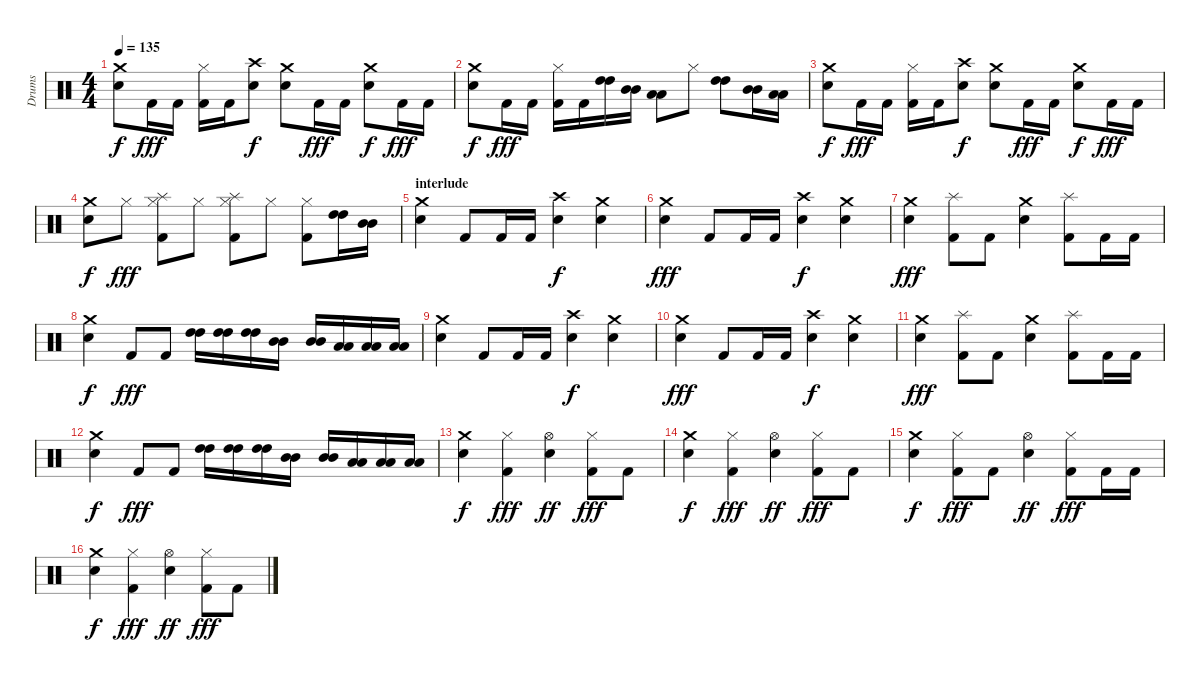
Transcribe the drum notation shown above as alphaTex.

\track ("Drums" "Drums") {instrument percussion}
\staff {score}
\articulation defaults
\ts (4 4)
\tempo 135
\clef neutral
\ks c
("Crash medium (hit)" "Electric Snare (hit)").8{dy f} "Kick (hit) 2".16{dy fff} "Kick (hit) 2".16 ("Hi-Hat (closed)" "Kick (hit) 2").16 "Kick (hit) 2".16 ("Crash high (hit)" "Electric Snare (hit)").8{dy f} ("Crash medium (hit)" "Electric Snare (hit)").8 "Kick (hit) 2".16{dy fff} "Kick (hit) 2".16 ("Crash medium (hit)" "Electric Snare (hit)").8{dy f} "Kick (hit) 2".16{dy fff} "Kick (hit) 2".16 |
("Crash medium (hit)" "Electric Snare (hit)").8{dy f} "Kick (hit) 2".16{dy fff} "Kick (hit) 2".16 ("Hi-Hat (closed)" "Kick (hit) 2").16 "Kick (hit) 2".16 ("High Tom (hit)" "High Tom (hit)").16 ("Mid Tom (hit)" "Mid Tom (hit)").16 ("Low Tom (hit)" "Low Tom (hit)").8 "Hi-Hat (closed)".8 ("High Tom (hit)" "High Tom (hit)").8 ("Mid Tom (hit)" "Mid Tom (hit)").16 ("Low Tom (hit)" "Low Tom (hit)").16 |
("Crash medium (hit)" "Electric Snare (hit)").8{dy f} "Kick (hit) 2".16{dy fff} "Kick (hit) 2".16 ("Hi-Hat (closed)" "Kick (hit) 2").16 "Kick (hit) 2".16 ("Crash high (hit)" "Electric Snare (hit)").8{dy f} ("Crash medium (hit)" "Electric Snare (hit)").8 "Kick (hit) 2".16{dy fff} "Kick (hit) 2".16 ("Crash medium (hit)" "Electric Snare (hit)").8{dy f} "Kick (hit) 2".16{dy fff} "Kick (hit) 2".16 |
("Crash medium (hit)" "Electric Snare (hit)").8{dy f} "Hi-Hat (closed)".8{dy fff} ("Splash (hit)" "Kick (hit) 2" "Hi-Hat (closed)").8 "Hi-Hat (closed)".8 ("Splash (hit)" "Kick (hit) 2" "Hi-Hat (closed)").8 "Hi-Hat (closed)".8 ("Kick (hit) 2" "Hi-Hat (closed)").8 ("High Tom (hit)" "High Tom (hit)").16 ("Mid Tom (hit)" "Mid Tom (hit)").16 |
\section ("" "interlude")
("Crash medium (hit)" "Electric Snare (hit)").4 "Kick (hit) 2".8 "Kick (hit) 2".16 "Kick (hit) 2".16 ("Crash high (hit)" "Electric Snare (hit)").4{dy f} ("Crash medium (hit)" "Electric Snare (hit)").4 |
("Crash medium (hit)" "Electric Snare (hit)").4{dy fff} "Kick (hit) 2".8 "Kick (hit) 2".16 "Kick (hit) 2".16 ("Crash high (hit)" "Electric Snare (hit)").4{dy f} ("Crash medium (hit)" "Electric Snare (hit)").4 |
("Crash medium (hit)" "Electric Snare (hit)").4{dy fff} ("Splash (hit)" "Kick (hit) 2").8 "Kick (hit) 2".8 ("Crash medium (hit)" "Electric Snare (hit)").4 ("Splash (hit)" "Kick (hit) 2").8 "Kick (hit) 2".16 "Kick (hit) 2".16 |
("Electric Snare (hit)" "Crash medium (hit)").4{dy f} "Kick (hit) 2".8{dy fff} "Kick (hit) 2".8 ("High Tom (hit)" "High Tom (hit)").16 ("High Tom (hit)" "High Tom (hit)").16 ("High Tom (hit)" "High Tom (hit)").16 ("Mid Tom (hit)" "Mid Tom (hit)").16 ("Mid Tom (hit)" "Mid Tom (hit)").16 ("Low Tom (hit)" "Low Tom (hit)").16 ("Low Tom (hit)" "Low Tom (hit)").16 ("Low Tom (hit)" "Low Tom (hit)").16 |
("Crash medium (hit)" "Electric Snare (hit)").4 "Kick (hit) 2".8 "Kick (hit) 2".16 "Kick (hit) 2".16 ("Crash high (hit)" "Electric Snare (hit)").4{dy f} ("Crash medium (hit)" "Electric Snare (hit)").4 |
("Crash medium (hit)" "Electric Snare (hit)").4{dy fff} "Kick (hit) 2".8 "Kick (hit) 2".16 "Kick (hit) 2".16 ("Crash high (hit)" "Electric Snare (hit)").4{dy f} ("Crash medium (hit)" "Electric Snare (hit)").4 |
("Crash medium (hit)" "Electric Snare (hit)").4{dy fff} ("Splash (hit)" "Kick (hit) 2").8 "Kick (hit) 2".8 ("Crash medium (hit)" "Electric Snare (hit)").4 ("Splash (hit)" "Kick (hit) 2").8 "Kick (hit) 2".16 "Kick (hit) 2".16 |
("Electric Snare (hit)" "Crash medium (hit)").4{dy f} "Kick (hit) 2".8{dy fff} "Kick (hit) 2".8 ("High Tom (hit)" "High Tom (hit)").16 ("High Tom (hit)" "High Tom (hit)").16 ("High Tom (hit)" "High Tom (hit)").16 ("Mid Tom (hit)" "Mid Tom (hit)").16 ("Mid Tom (hit)" "Mid Tom (hit)").16 ("Low Tom (hit)" "Low Tom (hit)").16 ("Low Tom (hit)" "Low Tom (hit)").16 ("Low Tom (hit)" "Low Tom (hit)").16 |
("Crash medium (hit)" "Electric Snare (hit)").4{dy f} ("Hi-Hat (closed)" "Kick (hit) 2").4{dy fff} ("Hi-Hat (open)" "Electric Snare (hit)").4{dy ff} ("Hi-Hat (closed)" "Kick (hit) 2").8{dy fff} "Kick (hit) 2".8 |
("Crash medium (hit)" "Electric Snare (hit)").4{dy f} ("Hi-Hat (closed)" "Kick (hit) 2").4{dy fff} ("Hi-Hat (open)" "Electric Snare (hit)").4{dy ff} ("Hi-Hat (closed)" "Kick (hit) 2").8{dy fff} "Kick (hit) 2".8 |
("Crash medium (hit)" "Electric Snare (hit)").4{dy f} ("Hi-Hat (closed)" "Kick (hit) 2").8{dy fff} "Kick (hit) 2".8 ("Hi-Hat (open)" "Electric Snare (hit)").4{dy ff} ("Hi-Hat (closed)" "Kick (hit) 2").8{dy fff} "Kick (hit) 2".16 "Kick (hit) 2".16 |
("Crash medium (hit)" "Electric Snare (hit)").4{dy f} ("Hi-Hat (closed)" "Kick (hit) 2").4{dy fff} ("Hi-Hat (open)" "Electric Snare (hit)").4{dy ff} ("Hi-Hat (closed)" "Kick (hit) 2").8{dy fff} "Kick (hit) 2".8
